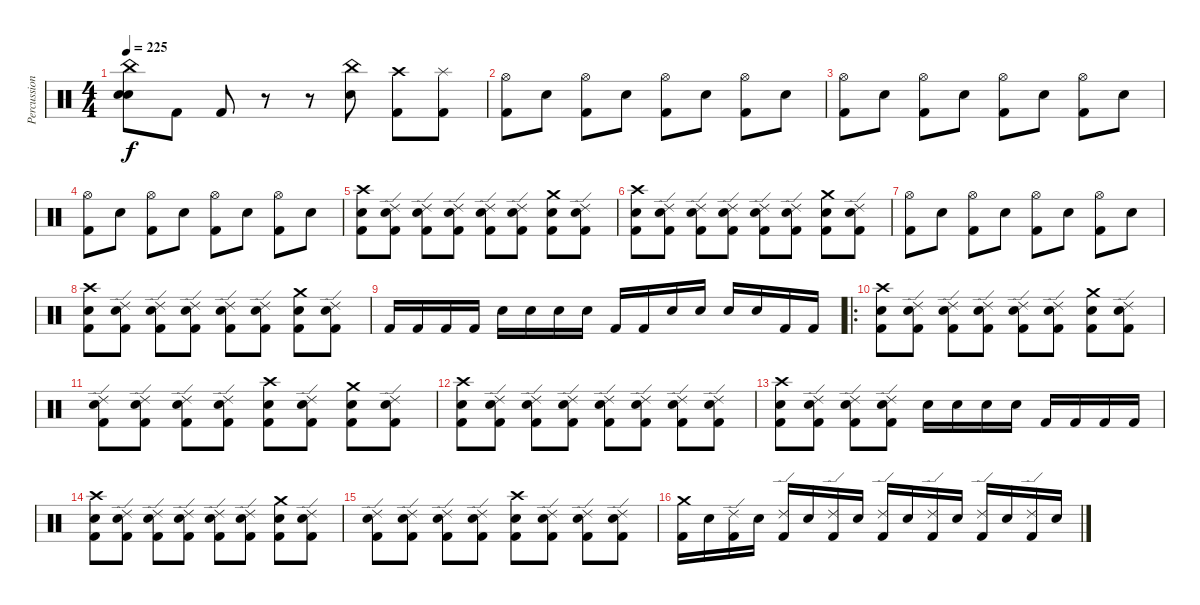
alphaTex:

\track ("Percussion" "Percussion") {instrument percussion}
\staff {score}
\articulation defaults
\ts (4 4)
\tempo 225
\clef neutral
\ks c
("China (hit)" "Electric Snare (hit)" "Electric Snare (hit)").8{dy f} "Kick (hit) 2".8 "Kick (hit) 2".8 r.8 r.8 ("China (hit)" "Electric Snare (hit)").8 ("Crash high (hit)" "Kick (hit) 2").8 ("Splash (hit)" "Kick (hit) 2").8 |
("Hi-Hat (open)" "Kick (hit) 2").8 "Electric Snare (hit)".8 ("Hi-Hat (open)" "Kick (hit) 2").8 "Electric Snare (hit)".8 ("Hi-Hat (open)" "Kick (hit) 2").8 "Electric Snare (hit)".8 ("Hi-Hat (open)" "Kick (hit) 2").8 "Electric Snare (hit)".8 |
("Hi-Hat (open)" "Kick (hit) 2").8 "Electric Snare (hit)".8 ("Hi-Hat (open)" "Kick (hit) 2").8 "Electric Snare (hit)".8 ("Hi-Hat (open)" "Kick (hit) 2").8 "Electric Snare (hit)".8 ("Hi-Hat (open)" "Kick (hit) 2").8 "Electric Snare (hit)".8 |
("Hi-Hat (open)" "Kick (hit) 2").8 "Electric Snare (hit)".8 ("Hi-Hat (open)" "Kick (hit) 2").8 "Electric Snare (hit)".8 ("Hi-Hat (open)" "Kick (hit) 2").8 "Electric Snare (hit)".8 ("Hi-Hat (open)" "Kick (hit) 2").8 "Electric Snare (hit)".8 |
("Crash high (hit)" "Kick (hit) 2" "Electric Snare (hit)").8 ("Ride (edge) 2" "Kick (hit) 2" "Electric Snare (hit)").8 ("Ride (edge) 2" "Kick (hit) 2" "Electric Snare (hit)").8 ("Ride (edge) 2" "Kick (hit) 2" "Electric Snare (hit)").8 ("Ride (edge) 2" "Kick (hit) 2" "Electric Snare (hit)").8 ("Ride (edge) 2" "Kick (hit) 2" "Electric Snare (hit)").8 ("Crash medium (hit)" "Kick (hit) 2" "Electric Snare (hit)").8 ("Ride (edge) 2" "Kick (hit) 2" "Electric Snare (hit)").8 |
("Crash high (hit)" "Kick (hit) 2" "Electric Snare (hit)").8 ("Ride (edge) 2" "Kick (hit) 2" "Electric Snare (hit)").8 ("Ride (edge) 2" "Kick (hit) 2" "Electric Snare (hit)").8 ("Ride (edge) 2" "Kick (hit) 2" "Electric Snare (hit)").8 ("Ride (edge) 2" "Kick (hit) 2" "Electric Snare (hit)").8 ("Ride (edge) 2" "Kick (hit) 2" "Electric Snare (hit)").8 ("Crash medium (hit)" "Kick (hit) 2" "Electric Snare (hit)").8 ("Ride (edge) 2" "Kick (hit) 2" "Electric Snare (hit)").8 |
("Hi-Hat (open)" "Kick (hit) 2").8 "Electric Snare (hit)".8 ("Hi-Hat (open)" "Kick (hit) 2").8 "Electric Snare (hit)".8 ("Hi-Hat (open)" "Kick (hit) 2").8 "Electric Snare (hit)".8 ("Hi-Hat (open)" "Kick (hit) 2").8 "Electric Snare (hit)".8 |
("Crash high (hit)" "Kick (hit) 2" "Electric Snare (hit)").8 ("Ride (edge) 2" "Kick (hit) 2" "Electric Snare (hit)").8 ("Ride (edge) 2" "Kick (hit) 2" "Electric Snare (hit)").8 ("Ride (edge) 2" "Kick (hit) 2" "Electric Snare (hit)").8 ("Ride (edge) 2" "Kick (hit) 2" "Electric Snare (hit)").8 ("Ride (edge) 2" "Kick (hit) 2" "Electric Snare (hit)").8 ("Crash medium (hit)" "Kick (hit) 2" "Electric Snare (hit)").8 ("Ride (edge) 2" "Kick (hit) 2" "Electric Snare (hit)").8 |
"Kick (hit) 2".16 "Kick (hit) 2".16 "Kick (hit) 2".16 "Kick (hit) 2".16 "Electric Snare (hit)".16 "Electric Snare (hit)".16 "Electric Snare (hit)".16 "Electric Snare (hit)".16 "Kick (hit) 2".16 "Kick (hit) 2".16 "Electric Snare (hit)".16 "Electric Snare (hit)".16 "Electric Snare (hit)".16 "Electric Snare (hit)".16 "Kick (hit) 2".16 "Kick (hit) 2".16 |
\ro
("Crash high (hit)" "Kick (hit) 2" "Electric Snare (hit)").8 ("Ride (edge) 2" "Kick (hit) 2" "Electric Snare (hit)").8 ("Ride (edge) 2" "Kick (hit) 2" "Electric Snare (hit)").8 ("Ride (edge) 2" "Kick (hit) 2" "Electric Snare (hit)").8 ("Ride (edge) 2" "Kick (hit) 2" "Electric Snare (hit)").8 ("Ride (edge) 2" "Kick (hit) 2" "Electric Snare (hit)").8 ("Crash medium (hit)" "Kick (hit) 2" "Electric Snare (hit)").8 ("Ride (edge) 2" "Kick (hit) 2" "Electric Snare (hit)").8 |
("Ride (edge) 2" "Kick (hit) 2" "Electric Snare (hit)").8 ("Ride (edge) 2" "Kick (hit) 2" "Electric Snare (hit)").8 ("Ride (edge) 2" "Kick (hit) 2" "Electric Snare (hit)").8 ("Ride (edge) 2" "Kick (hit) 2" "Electric Snare (hit)").8 ("Crash high (hit)" "Kick (hit) 2" "Electric Snare (hit)").8 ("Ride (edge) 2" "Kick (hit) 2" "Electric Snare (hit)").8 ("Crash medium (hit)" "Kick (hit) 2" "Electric Snare (hit)").8 ("Ride (edge) 2" "Kick (hit) 2" "Electric Snare (hit)").8 |
("Crash high (hit)" "Kick (hit) 2" "Electric Snare (hit)").8 ("Ride (edge) 2" "Kick (hit) 2" "Electric Snare (hit)").8 ("Ride (edge) 2" "Kick (hit) 2" "Electric Snare (hit)").8 ("Ride (edge) 2" "Kick (hit) 2" "Electric Snare (hit)").8 ("Ride (edge) 2" "Kick (hit) 2" "Electric Snare (hit)").8 ("Ride (edge) 2" "Kick (hit) 2" "Electric Snare (hit)").8 ("Ride (edge) 2" "Kick (hit) 2" "Electric Snare (hit)").8 ("Ride (edge) 2" "Kick (hit) 2" "Electric Snare (hit)").8 |
("Crash high (hit)" "Kick (hit) 2" "Electric Snare (hit)").8 ("Ride (edge) 2" "Kick (hit) 2" "Electric Snare (hit)").8 ("Ride (edge) 2" "Kick (hit) 2" "Electric Snare (hit)").8 ("Ride (edge) 2" "Kick (hit) 2" "Electric Snare (hit)").8 "Electric Snare (hit)".16 "Electric Snare (hit)".16 "Electric Snare (hit)".16 "Electric Snare (hit)".16 "Kick (hit) 2".16 "Kick (hit) 2".16 "Kick (hit) 2".16 "Kick (hit) 2".16 |
("Crash high (hit)" "Kick (hit) 2" "Electric Snare (hit)").8 ("Ride (edge) 2" "Kick (hit) 2" "Electric Snare (hit)").8 ("Ride (edge) 2" "Kick (hit) 2" "Electric Snare (hit)").8 ("Ride (edge) 2" "Kick (hit) 2" "Electric Snare (hit)").8 ("Ride (edge) 2" "Kick (hit) 2" "Electric Snare (hit)").8 ("Ride (edge) 2" "Kick (hit) 2" "Electric Snare (hit)").8 ("Crash medium (hit)" "Kick (hit) 2" "Electric Snare (hit)").8 ("Ride (edge) 2" "Kick (hit) 2" "Electric Snare (hit)").8 |
("Ride (edge) 2" "Kick (hit) 2" "Electric Snare (hit)").8 ("Ride (edge) 2" "Kick (hit) 2" "Electric Snare (hit)").8 ("Ride (edge) 2" "Kick (hit) 2" "Electric Snare (hit)").8 ("Ride (edge) 2" "Kick (hit) 2" "Electric Snare (hit)").8 ("Crash high (hit)" "Kick (hit) 2" "Electric Snare (hit)").8 ("Ride (edge) 2" "Kick (hit) 2" "Electric Snare (hit)").8 ("Ride (edge) 2" "Kick (hit) 2" "Electric Snare (hit)").8 ("Ride (edge) 2" "Kick (hit) 2" "Electric Snare (hit)").8 |
("Crash medium (hit)" "Kick (hit) 2").16 "Electric Snare (hit)".16 ("Ride (edge) 2" "Kick (hit) 2").16 "Electric Snare (hit)".16 ("Ride (edge) 2" "Kick (hit) 2").16 "Electric Snare (hit)".16 ("Ride (edge) 2" "Kick (hit) 2").16 "Electric Snare (hit)".16 ("Ride (edge) 2" "Kick (hit) 2").16 "Electric Snare (hit)".16 ("Ride (edge) 2" "Kick (hit) 2").16 "Electric Snare (hit)".16 ("Ride (edge) 2" "Kick (hit) 2").16 "Electric Snare (hit)".16 ("Ride (edge) 2" "Kick (hit) 2").16 "Electric Snare (hit)".16
